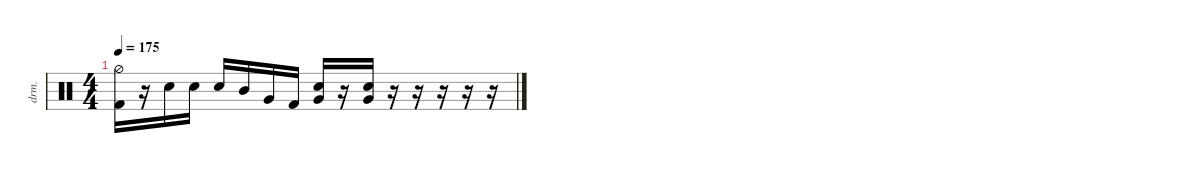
\defaultSystemsLayout 4
\hideDynamics
\bracketExtendMode nobrackets
\track ("Drums - Mario" "drm.") {instrument percussion}
\staff {score}
\articulation defaults
\ts (4 4)
\tempo 175
\clef neutral
\ks c
("Kick (hit) 2" "Hi-Hat (half)").16{dy ff beam Down} r.16{beam Down} "Snare (hit) 2".16{beam Down} "Snare (hit) 2".16{beam Down} "Snare (hit) 2".16{beam Up} "Mid Tom (hit)".16{beam Up} "Very Low Tom (hit)".16{beam Up} "Kick (hit) 2".16{beam Up} ("Snare (hit) 2" "Very Low Tom (hit)").16{beam Up} r.16{beam Up} ("Snare (hit) 2" "Very Low Tom (hit)").16{beam Up} r.16{beam Down} r.16{beam Down} r.16{beam Down} r.16{beam Down} r.16{beam Down}
